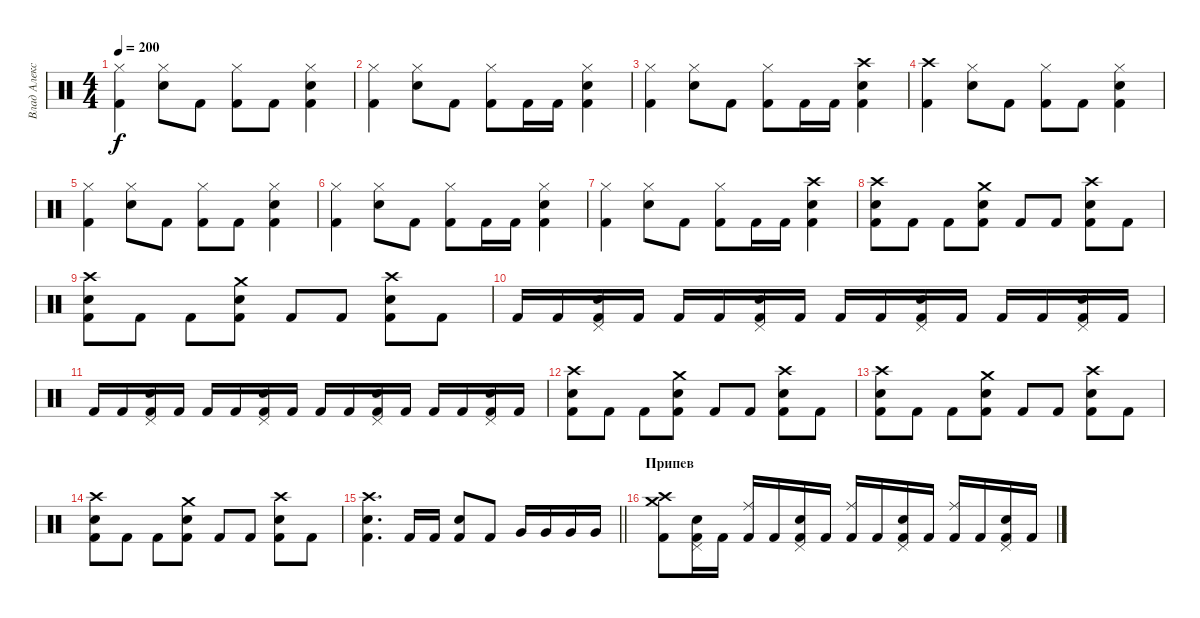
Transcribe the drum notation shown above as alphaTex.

\track ("Влад Алексеенко" "Влад Алекс") {instrument percussion}
\staff {score}
\articulation defaults
\ts (4 4)
\tempo 200
\clef neutral
\ks c
("Hi-Hat (closed)" "Kick (hit) 2").4{dy f} ("Hi-Hat (closed)" "Electric Snare (hit)").8 "Kick (hit) 2".8 ("Hi-Hat (closed)" "Kick (hit) 2").8 "Kick (hit) 2".8 ("Hi-Hat (closed)" "Electric Snare (hit)" "Kick (hit) 2").4 |
("Hi-Hat (closed)" "Kick (hit) 2").4 ("Hi-Hat (closed)" "Electric Snare (hit)").8 "Kick (hit) 2".8 ("Hi-Hat (closed)" "Kick (hit) 2").8 "Kick (hit) 2".16 "Kick (hit) 2".16 ("Hi-Hat (closed)" "Electric Snare (hit)" "Kick (hit) 2").4 |
("Hi-Hat (closed)" "Kick (hit) 2").4 ("Hi-Hat (closed)" "Electric Snare (hit)").8 "Kick (hit) 2".8 ("Hi-Hat (closed)" "Kick (hit) 2").8 "Kick (hit) 2".16 "Kick (hit) 2".16 ("Crash high (hit)" "Electric Snare (hit)" "Kick (hit) 2").4 |
("Crash high (hit)" "Kick (hit) 2").4 ("Hi-Hat (closed)" "Electric Snare (hit)").8 "Kick (hit) 2".8 ("Hi-Hat (closed)" "Kick (hit) 2").8 "Kick (hit) 2".8 ("Hi-Hat (closed)" "Electric Snare (hit)" "Kick (hit) 2").4 |
("Hi-Hat (closed)" "Kick (hit) 2").4 ("Hi-Hat (closed)" "Electric Snare (hit)").8 "Kick (hit) 2".8 ("Hi-Hat (closed)" "Kick (hit) 2").8 "Kick (hit) 2".8 ("Hi-Hat (closed)" "Electric Snare (hit)" "Kick (hit) 2").4 |
("Hi-Hat (closed)" "Kick (hit) 2").4 ("Hi-Hat (closed)" "Electric Snare (hit)").8 "Kick (hit) 2".8 ("Hi-Hat (closed)" "Kick (hit) 2").8 "Kick (hit) 2".16 "Kick (hit) 2".16 ("Hi-Hat (closed)" "Electric Snare (hit)" "Kick (hit) 2").4 |
("Hi-Hat (closed)" "Kick (hit) 2").4 ("Hi-Hat (closed)" "Electric Snare (hit)").8 "Kick (hit) 2".8 ("Hi-Hat (closed)" "Kick (hit) 2").8 "Kick (hit) 2".16 "Kick (hit) 2".16 ("Crash high (hit)" "Electric Snare (hit)" "Kick (hit) 2").4 |
("Crash high (hit)" "Electric Snare (hit)" "Kick (hit) 2").8 "Kick (hit) 2".8 "Kick (hit) 2".8 ("Crash medium (hit)" "Electric Snare (hit)" "Kick (hit) 2").8 "Kick (hit) 2".8 "Kick (hit) 2".8 ("Crash high (hit)" "Electric Snare (hit)" "Kick (hit) 2").8 "Kick (hit) 2".8 |
("Crash high (hit)" "Electric Snare (hit)" "Kick (hit) 2").8 "Kick (hit) 2".8 "Kick (hit) 2".8 ("Crash medium (hit)" "Electric Snare (hit)" "Kick (hit) 2").8 "Kick (hit) 2".8 "Kick (hit) 2".8 ("Crash high (hit)" "Electric Snare (hit)" "Kick (hit) 2").8 "Kick (hit) 2".8 |
"Kick (hit) 2".16 "Kick (hit) 2".16 ("Kick (hit) 2" "Electric Snare (hit)" "Pedal Hi-Hat (hit)").16 "Kick (hit) 2".16 "Kick (hit) 2".16 "Kick (hit) 2".16 ("Kick (hit) 2" "Electric Snare (hit)" "Pedal Hi-Hat (hit)").16 "Kick (hit) 2".16 "Kick (hit) 2".16 "Kick (hit) 2".16 ("Kick (hit) 2" "Electric Snare (hit)" "Pedal Hi-Hat (hit)").16 "Kick (hit) 2".16 "Kick (hit) 2".16 "Kick (hit) 2".16 ("Kick (hit) 2" "Electric Snare (hit)" "Pedal Hi-Hat (hit)").16 "Kick (hit) 2".16 |
"Kick (hit) 2".16 "Kick (hit) 2".16 ("Kick (hit) 2" "Electric Snare (hit)" "Pedal Hi-Hat (hit)").16 "Kick (hit) 2".16 "Kick (hit) 2".16 "Kick (hit) 2".16 ("Kick (hit) 2" "Electric Snare (hit)" "Pedal Hi-Hat (hit)").16 "Kick (hit) 2".16 "Kick (hit) 2".16 "Kick (hit) 2".16 ("Kick (hit) 2" "Electric Snare (hit)" "Pedal Hi-Hat (hit)").16 "Kick (hit) 2".16 "Kick (hit) 2".16 "Kick (hit) 2".16 ("Kick (hit) 2" "Electric Snare (hit)" "Pedal Hi-Hat (hit)").16 "Kick (hit) 2".16 |
("Crash high (hit)" "Electric Snare (hit)" "Kick (hit) 2").8 "Kick (hit) 2".8 "Kick (hit) 2".8 ("Crash medium (hit)" "Electric Snare (hit)" "Kick (hit) 2").8 "Kick (hit) 2".8 "Kick (hit) 2".8 ("Crash high (hit)" "Electric Snare (hit)" "Kick (hit) 2").8 "Kick (hit) 2".8 |
("Crash high (hit)" "Electric Snare (hit)" "Kick (hit) 2").8 "Kick (hit) 2".8 "Kick (hit) 2".8 ("Crash medium (hit)" "Electric Snare (hit)" "Kick (hit) 2").8 "Kick (hit) 2".8 "Kick (hit) 2".8 ("Crash high (hit)" "Electric Snare (hit)" "Kick (hit) 2").8 "Kick (hit) 2".8 |
("Crash high (hit)" "Electric Snare (hit)" "Kick (hit) 2").8 "Kick (hit) 2".8 "Kick (hit) 2".8 ("Crash medium (hit)" "Electric Snare (hit)" "Kick (hit) 2").8 "Kick (hit) 2".8 "Kick (hit) 2".8 ("Crash high (hit)" "Electric Snare (hit)" "Kick (hit) 2").8 "Kick (hit) 2".8 |
\barLineRight lightlight
("Crash high (hit)" "Electric Snare (hit)" "Kick (hit) 2").4{d} "Kick (hit) 2".16 "Kick (hit) 2".16 ("Electric Snare (hit)" "Kick (hit) 2").8 "Kick (hit) 2".8 "Very Low Tom (hit)".16 "Very Low Tom (hit)".16 "Very Low Tom (hit)".16 "Very Low Tom (hit)".16 |
\section ("" "Припев")
("Crash high (hit)" "Crash medium (hit)" "Kick (hit) 2").8 ("Kick (hit) 2" "Electric Snare (hit)" "Pedal Hi-Hat (hit)").16 "Kick (hit) 2".16 ("Kick (hit) 2" "Ride (middle)").16 "Kick (hit) 2".16 ("Kick (hit) 2" "Electric Snare (hit)" "Pedal Hi-Hat (hit)").16 "Kick (hit) 2".16 ("Kick (hit) 2" "Ride (middle)").16 "Kick (hit) 2".16 ("Kick (hit) 2" "Electric Snare (hit)" "Pedal Hi-Hat (hit)").16 "Kick (hit) 2".16 ("Kick (hit) 2" "Ride (middle)").16 "Kick (hit) 2".16 ("Kick (hit) 2" "Electric Snare (hit)" "Pedal Hi-Hat (hit)").16 "Kick (hit) 2".16
